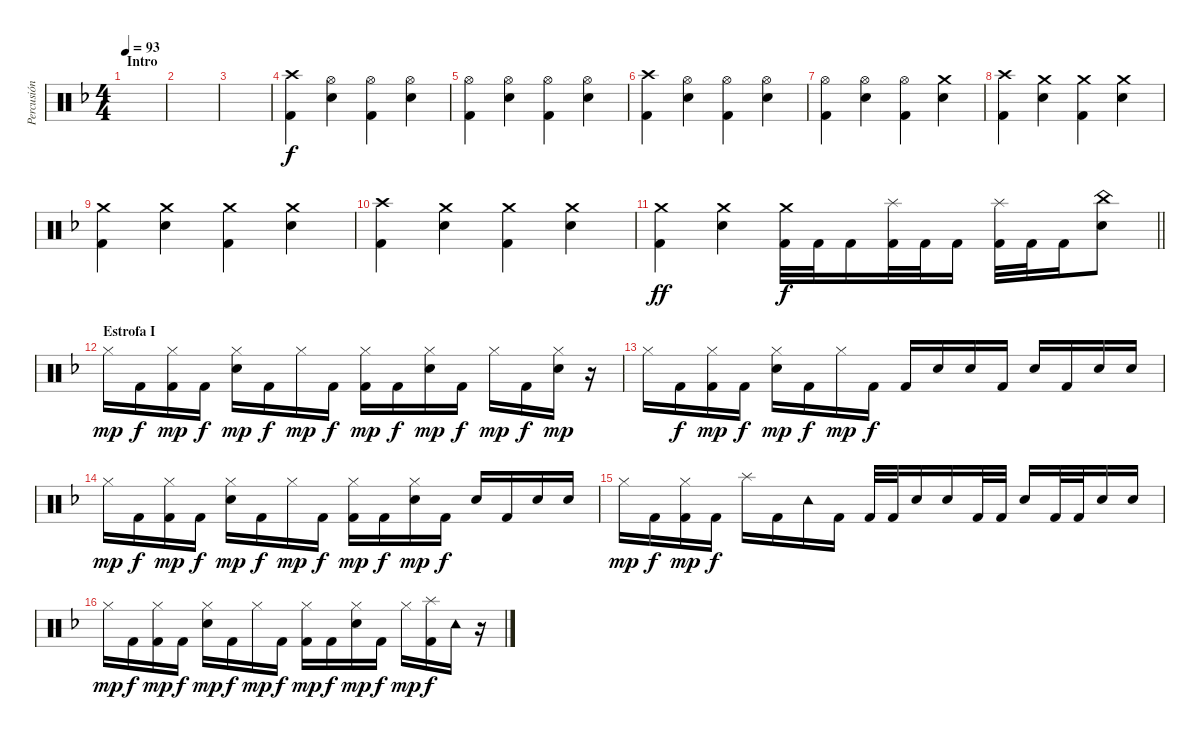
\track ("Percusión" "Percusión") {instrument percussion}
\staff {score}
\articulation defaults
\ts (4 4)
\section ("" "Intro")
\tempo 93
\clef neutral
\ks dminor
|
|
|
("Crash high (hit)" "Kick (hit) 2").4 ("Hi-Hat (open)" "Snare (hit) 2").4 ("Hi-Hat (open)" "Kick (hit) 2").4 ("Hi-Hat (open)" "Snare (hit) 2").4 |
("Hi-Hat (open)" "Kick (hit) 2").4 ("Hi-Hat (open)" "Snare (hit) 2").4 ("Hi-Hat (open)" "Kick (hit) 2").4 ("Hi-Hat (open)" "Snare (hit) 2").4 |
("Crash high (hit)" "Kick (hit) 2").4 ("Hi-Hat (open)" "Snare (hit) 2").4 ("Hi-Hat (open)" "Kick (hit) 2").4 ("Hi-Hat (open)" "Snare (hit) 2").4 |
("Hi-Hat (open)" "Kick (hit) 2").4 ("Hi-Hat (open)" "Snare (hit) 2").4 ("Hi-Hat (open)" "Kick (hit) 2").4 ("Crash medium (hit)" "Snare (hit) 2").4 |
("Crash high (hit)" "Kick (hit) 2").4 ("Crash medium (hit)" "Snare (hit) 2").4 ("Crash medium (hit)" "Kick (hit) 2").4 ("Crash medium (hit)" "Snare (hit) 2").4 |
("Crash medium (hit)" "Kick (hit) 2").4 ("Crash medium (hit)" "Snare (hit) 2").4 ("Crash medium (hit)" "Kick (hit) 2").4 ("Crash medium (hit)" "Snare (hit) 2").4 |
("Crash high (hit)" "Kick (hit) 2").4 ("Crash medium (hit)" "Snare (hit) 2").4 ("Crash medium (hit)" "Kick (hit) 2").4 ("Crash medium (hit)" "Snare (hit) 2").4 |
\barLineRight lightlight
("Crash medium (hit)" "Kick (hit) 2").4{dy ff} ("Crash medium (hit)" "Snare (hit) 2").4 ("Crash medium (hit)" "Kick (hit) 2").32{dy f} "Kick (hit) 2".32 "Kick (hit) 2".16 ("Splash (hit)" "Kick (hit) 2").32 "Kick (hit) 2".32 "Kick (hit) 2".16 ("Splash (hit)" "Kick (hit) 2").32 "Kick (hit) 2".32 "Kick (hit) 2".16 ("China (hit)" "Snare (hit) 2").8 |
\section ("" "Estrofa I")
"Hi-Hat (closed)".16{dy mp} "Kick (hit) 2".16{dy f} ("Hi-Hat (closed)" "Kick (hit) 2").16{dy mp} "Kick (hit) 2".16{dy f} ("Hi-Hat (closed)" "Snare (hit) 2").16{dy mp} "Kick (hit) 2".16{dy f} "Hi-Hat (closed)".16{dy mp} "Kick (hit) 2".16{dy f} ("Hi-Hat (closed)" "Kick (hit) 2").16{dy mp} "Kick (hit) 2".16{dy f} ("Hi-Hat (closed)" "Snare (hit) 2").16{dy mp} "Kick (hit) 2".16{dy f} "Hi-Hat (closed)".16{dy mp} "Kick (hit) 2".16{dy f} ("Hi-Hat (closed)" "Snare (hit) 2").16{dy mp} r.16 |
"Hi-Hat (closed)".16 "Kick (hit) 2".16{dy f} ("Hi-Hat (closed)" "Kick (hit) 2").16{dy mp} "Kick (hit) 2".16{dy f} ("Hi-Hat (closed)" "Snare (hit) 2").16{dy mp} "Kick (hit) 2".16{dy f} "Hi-Hat (closed)".16{dy mp} "Kick (hit) 2".16{dy f} "Kick (hit) 2".16 "Snare (hit) 2".16 "Snare (hit) 2".16 "Kick (hit) 2".16 "Snare (hit) 2".16 "Kick (hit) 2".16 "Snare (hit) 2".16 "Snare (hit) 2".16 |
"Hi-Hat (closed)".16{dy mp} "Kick (hit) 2".16{dy f} ("Hi-Hat (closed)" "Kick (hit) 2").16{dy mp} "Kick (hit) 2".16{dy f} ("Hi-Hat (closed)" "Snare (hit) 2").16{dy mp} "Kick (hit) 2".16{dy f} "Hi-Hat (closed)".16{dy mp} "Kick (hit) 2".16{dy f} ("Hi-Hat (closed)" "Kick (hit) 2").16{dy mp} "Kick (hit) 2".16{dy f} ("Hi-Hat (closed)" "Snare (hit) 2").16{dy mp} "Kick (hit) 2".16{dy f} "Snare (hit) 2".16 "Kick (hit) 2".16 "Snare (hit) 2".16 "Snare (hit) 2".16 |
"Hi-Hat (closed)".16{dy mp} "Kick (hit) 2".16{dy f} ("Hi-Hat (closed)" "Kick (hit) 2").16{dy mp} "Kick (hit) 2".16{dy f} "Splash (hit)".16 "Kick (hit) 2".16 "Tambourine (hit)".16 "Kick (hit) 2".16 "Kick (hit) 2".32 "Kick (hit) 2".32 "Snare (hit) 2".16 "Snare (hit) 2".16 "Kick (hit) 2".32 "Kick (hit) 2".32 "Snare (hit) 2".16 "Kick (hit) 2".32 "Kick (hit) 2".32 "Snare (hit) 2".16 "Snare (hit) 2".16 |
"Hi-Hat (closed)".16{dy mp} "Kick (hit) 2".16{dy f} ("Hi-Hat (closed)" "Kick (hit) 2").16{dy mp} "Kick (hit) 2".16{dy f} ("Hi-Hat (closed)" "Snare (hit) 2").16{dy mp} "Kick (hit) 2".16{dy f} "Hi-Hat (closed)".16{dy mp} "Kick (hit) 2".16{dy f} ("Hi-Hat (closed)" "Kick (hit) 2").16{dy mp} "Kick (hit) 2".16{dy f} ("Hi-Hat (closed)" "Snare (hit) 2").16{dy mp} "Kick (hit) 2".16{dy f} "Hi-Hat (closed)".16{dy mp} ("Splash (hit)" "Kick (hit) 2").16{dy f} "Tambourine (hit)".16 r.16
